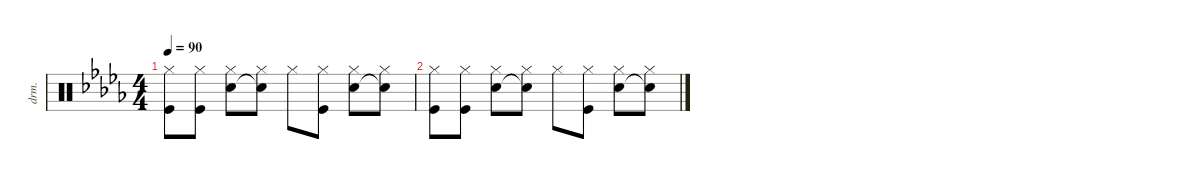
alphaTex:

\defaultSystemsLayout 4
\hideDynamics
\bracketExtendMode nobrackets
\otherSystemsTrackNameOrientation horizontal
\track ("Drumkit" "drm.") {instrument percussion}
\staff {score}
\articulation defaults
\ts (4 4)
\tempo 90
\clef neutral
\ks db
("Kick (hit)"{acc forcenatural} "Hi-Hat (closed)"{acc forcenatural}).8{dy pp beam Down} ("Kick (hit)"{acc forcenatural} "Hi-Hat (closed)"{acc forcenatural}).8{beam Down} ("Snare (hit) 2"{acc forcenatural} "Hi-Hat (closed)"{acc forcenatural}).8{beam Down} ("Snare (hit) 2"{t acc forcenatural} "Hi-Hat (closed)"{acc forcenatural}).8{beam Down} "Hi-Hat (closed)"{acc forcenatural}.8{beam Down} ("Kick (hit)"{acc forcenatural} "Hi-Hat (closed)"{acc forcenatural}).8{beam Down} ("Snare (hit) 2"{acc forcenatural} "Hi-Hat (closed)"{acc forcenatural}).8{beam Down} ("Snare (hit) 2"{t acc forcenatural} "Hi-Hat (closed)"{acc forcenatural}).8{beam Down} |
("Kick (hit)"{acc forcenatural} "Hi-Hat (closed)"{acc forcenatural}).8{beam Down} ("Kick (hit)"{acc forcenatural} "Hi-Hat (closed)"{acc forcenatural}).8{beam Down} ("Snare (hit) 2"{acc forcenatural} "Hi-Hat (closed)"{acc forcenatural}).8{beam Down} ("Snare (hit) 2"{t acc forcenatural} "Hi-Hat (closed)"{acc forcenatural}).8{beam Down} "Hi-Hat (closed)"{acc forcenatural}.8{beam Down} ("Kick (hit)"{acc forcenatural} "Hi-Hat (closed)"{acc forcenatural}).8{beam Down} ("Snare (hit) 2"{acc forcenatural} "Hi-Hat (closed)"{acc forcenatural}).8{beam Down} ("Snare (hit) 2"{t acc forcenatural} "Hi-Hat (closed)"{acc forcenatural}).8{beam Down}
